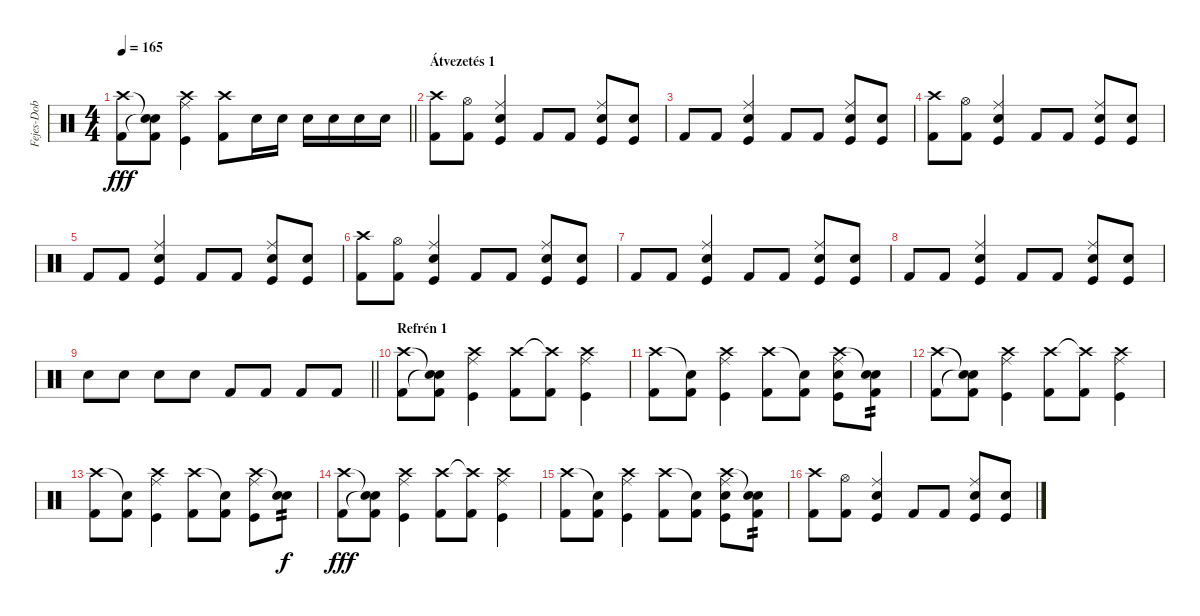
\track ("Fejes-Dob" "Fejes-Dob") {instrument percussion}
\staff {score}
\articulation defaults
\ts (4 4)
\tempo 165
\clef neutral
\barLineRight lightlight
\ks c
("Crash high (hit)" "Kick (hit) 2").8{dy fff} ("Snare (hit)"{t} "Snare (hit)"{t} "Kick (hit) 2").8 ("Crash high (hit)" "Ride (middle)" "Kick (hit)").4 ("Crash high (hit)" "Kick (hit) 2").8 "Electric Snare (hit)".16 "Electric Snare (hit)".16 "Electric Snare (hit)".16 "Snare (hit) 2".16 "Snare (hit) 2".16 "Snare (hit) 2".16 |
\section ("" "Átvezetés 1")
("Crash high (hit)" "Kick (hit) 2").8 ("Hi-Hat (open)" "Kick (hit) 2").8 ("Ride (middle)" "Snare (hit) 2" "Kick (hit)").4 "Kick (hit) 2".8 "Kick (hit) 2".8 ("Ride (middle)" "Snare (hit) 2" "Kick (hit)").8 ("Snare (hit) 2" "Kick (hit)").8 |
"Kick (hit) 2".8 "Kick (hit) 2".8 ("Ride (middle)" "Snare (hit) 2" "Kick (hit)").4 "Kick (hit) 2".8 "Kick (hit) 2".8 ("Ride (middle)" "Snare (hit) 2" "Kick (hit)").8 ("Snare (hit) 2" "Kick (hit)").8 |
("Crash high (hit)" "Kick (hit) 2").8 ("Hi-Hat (open)" "Kick (hit) 2").8 ("Ride (middle)" "Snare (hit) 2" "Kick (hit)").4 "Kick (hit) 2".8 "Kick (hit) 2".8 ("Ride (middle)" "Snare (hit) 2" "Kick (hit)").8 ("Snare (hit) 2" "Kick (hit)").8 |
"Kick (hit) 2".8 "Kick (hit) 2".8 ("Ride (middle)" "Snare (hit) 2" "Kick (hit)").4 "Kick (hit) 2".8 "Kick (hit) 2".8 ("Ride (middle)" "Snare (hit) 2" "Kick (hit)").8 ("Snare (hit) 2" "Kick (hit)").8 |
("Crash high (hit)" "Kick (hit) 2").8 ("Hi-Hat (open)" "Kick (hit) 2").8 ("Ride (middle)" "Snare (hit) 2" "Kick (hit)").4 "Kick (hit) 2".8 "Kick (hit) 2".8 ("Ride (middle)" "Snare (hit) 2" "Kick (hit)").8 ("Snare (hit) 2" "Kick (hit)").8 |
"Kick (hit) 2".8 "Kick (hit) 2".8 ("Ride (middle)" "Snare (hit) 2" "Kick (hit)").4 "Kick (hit) 2".8 "Kick (hit) 2".8 ("Ride (middle)" "Snare (hit) 2" "Kick (hit)").8 ("Snare (hit) 2" "Kick (hit)").8 |
"Kick (hit) 2".8 "Kick (hit) 2".8 ("Ride (middle)" "Snare (hit) 2" "Kick (hit)").4 "Kick (hit) 2".8 "Kick (hit) 2".8 ("Ride (middle)" "Snare (hit) 2" "Kick (hit)").8 ("Snare (hit) 2" "Kick (hit)").8 |
\barLineRight lightlight "Snare (hit) 2".8 "Snare (hit) 2".8 "Snare (hit) 2".8 "Snare (hit) 2".8 "Kick (hit) 2".8 "Kick (hit) 2".8 "Kick (hit) 2".8 "Kick (hit) 2".8
|
\section ("" "Refrén 1")
("Crash high (hit)" "Kick (hit) 2").8 ("Snare (hit)"{t} "Snare (hit)"{t} "Kick (hit) 2").8 ("Crash high (hit)" "Ride (middle)" "Kick (hit)").4 ("Crash high (hit)" "Kick (hit) 2").8 ("Crash high (hit)"{t} "Kick (hit) 2").8 ("Crash high (hit)" "Ride (middle)" "Kick (hit)").4 |
("Crash high (hit)" "Kick (hit) 2").8 ("Snare (hit)"{t} "Kick (hit) 2").8 ("Crash high (hit)" "Ride (middle)" "Kick (hit)").4 ("Crash high (hit)" "Kick (hit) 2").8 ("Snare (hit)"{t} "Kick (hit) 2").8 ("Crash high (hit)" "Ride (middle)" "Electric Snare (hit)" "Kick (hit)").8 ("Snare (hit)"{t} "Electric Snare (hit)" "Kick (hit) 2").8{tp 2} |
("Crash high (hit)" "Kick (hit) 2").8 ("Snare (hit)"{t} "Snare (hit)"{t} "Kick (hit) 2").8 ("Crash high (hit)" "Ride (middle)" "Kick (hit)").4 ("Crash high (hit)" "Kick (hit) 2").8 ("Crash high (hit)"{t} "Kick (hit) 2").8 ("Crash high (hit)" "Ride (middle)" "Kick (hit)").4 |
("Crash high (hit)" "Kick (hit) 2").8 ("Snare (hit)"{t} "Kick (hit) 2").8 ("Crash high (hit)" "Ride (middle)" "Kick (hit)").4 ("Crash high (hit)" "Kick (hit) 2").8 ("Snare (hit)"{t} "Kick (hit) 2").8 ("Crash high (hit)" "Ride (middle)" "Kick (hit)").8 ("Snare (hit)"{t} "Electric Snare (hit)").8{tp 2 dy f} |
("Crash high (hit)" "Kick (hit) 2").8{dy fff} ("Snare (hit)"{t} "Snare (hit)"{t} "Kick (hit) 2").8 ("Crash high (hit)" "Ride (middle)" "Kick (hit)").4 ("Crash high (hit)" "Kick (hit) 2").8 ("Crash high (hit)"{t} "Kick (hit) 2").8 ("Crash high (hit)" "Ride (middle)" "Kick (hit)").4 |
("Crash high (hit)" "Kick (hit) 2").8 ("Snare (hit)"{t} "Kick (hit) 2").8 ("Crash high (hit)" "Ride (middle)" "Kick (hit)").4 ("Crash high (hit)" "Kick (hit) 2").8 ("Snare (hit)"{t} "Kick (hit) 2").8 ("Crash high (hit)" "Ride (middle)" "Electric Snare (hit)" "Kick (hit)").8 ("Snare (hit)"{t} "Electric Snare (hit)" "Kick (hit) 2").8{tp 2} |
("Crash high (hit)" "Kick (hit) 2").8 ("Hi-Hat (open)" "Kick (hit) 2").8 ("Ride (middle)" "Snare (hit) 2" "Kick (hit)").4 "Kick (hit) 2".8 "Kick (hit) 2".8 ("Ride (middle)" "Snare (hit) 2" "Kick (hit)").8 ("Snare (hit) 2" "Kick (hit)").8
